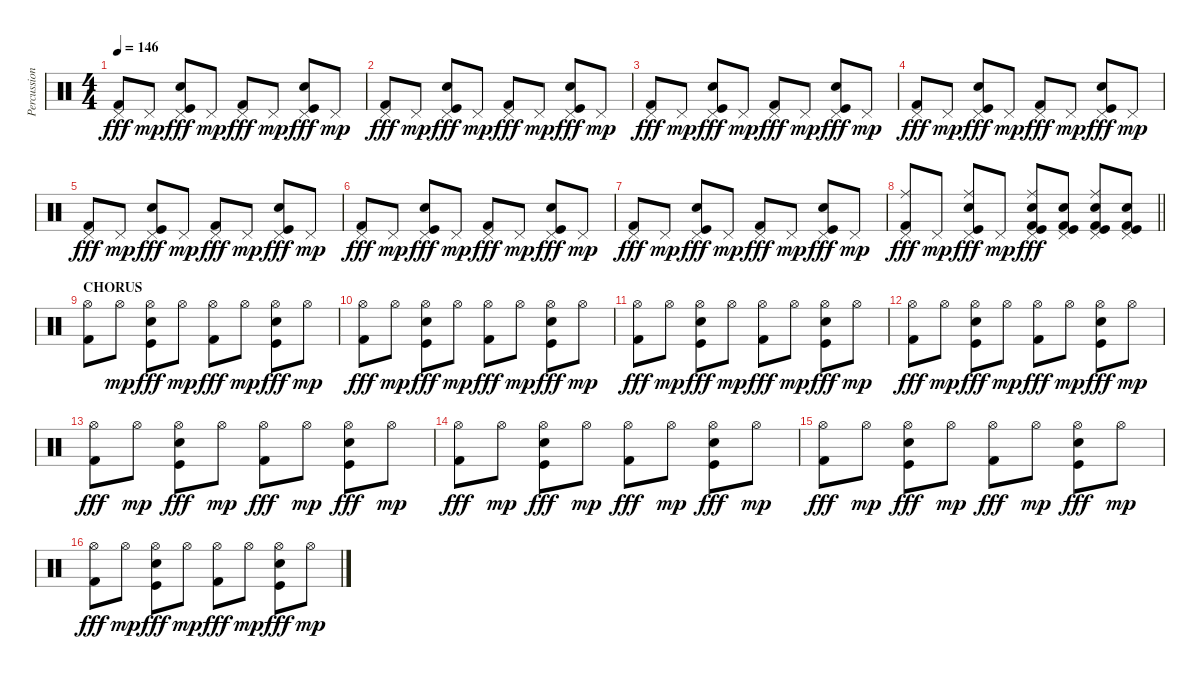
\track ("Percussion" "Percussion") {instrument percussion}
\staff {score}
\articulation defaults
\ts (4 4)
\tempo 146
\clef neutral
\ks c
("Pedal Hi-Hat (hit)" "Kick (hit) 2").8{dy fff} "Pedal Hi-Hat (hit)".8{dy mp} ("Pedal Hi-Hat (hit)" "Kick (hit)" "Snare (hit) 2").8{dy fff} "Pedal Hi-Hat (hit)".8{dy mp} ("Pedal Hi-Hat (hit)" "Kick (hit) 2").8{dy fff} "Pedal Hi-Hat (hit)".8{dy mp} ("Pedal Hi-Hat (hit)" "Kick (hit)" "Snare (hit) 2").8{dy fff} "Pedal Hi-Hat (hit)".8{dy mp} |
("Pedal Hi-Hat (hit)" "Kick (hit) 2").8{dy fff} "Pedal Hi-Hat (hit)".8{dy mp} ("Pedal Hi-Hat (hit)" "Kick (hit)" "Snare (hit) 2").8{dy fff} "Pedal Hi-Hat (hit)".8{dy mp} ("Pedal Hi-Hat (hit)" "Kick (hit) 2").8{dy fff} "Pedal Hi-Hat (hit)".8{dy mp} ("Pedal Hi-Hat (hit)" "Kick (hit)" "Snare (hit) 2").8{dy fff} "Pedal Hi-Hat (hit)".8{dy mp} |
("Pedal Hi-Hat (hit)" "Kick (hit) 2").8{dy fff} "Pedal Hi-Hat (hit)".8{dy mp} ("Pedal Hi-Hat (hit)" "Kick (hit)" "Snare (hit) 2").8{dy fff} "Pedal Hi-Hat (hit)".8{dy mp} ("Pedal Hi-Hat (hit)" "Kick (hit) 2").8{dy fff} "Pedal Hi-Hat (hit)".8{dy mp} ("Pedal Hi-Hat (hit)" "Kick (hit)" "Snare (hit) 2").8{dy fff} "Pedal Hi-Hat (hit)".8{dy mp} |
("Pedal Hi-Hat (hit)" "Kick (hit) 2").8{dy fff} "Pedal Hi-Hat (hit)".8{dy mp} ("Pedal Hi-Hat (hit)" "Kick (hit)" "Snare (hit) 2").8{dy fff} "Pedal Hi-Hat (hit)".8{dy mp} ("Pedal Hi-Hat (hit)" "Kick (hit) 2").8{dy fff} "Pedal Hi-Hat (hit)".8{dy mp} ("Pedal Hi-Hat (hit)" "Kick (hit)" "Snare (hit) 2").8{dy fff} "Pedal Hi-Hat (hit)".8{dy mp} |
("Pedal Hi-Hat (hit)" "Kick (hit) 2").8{dy fff} "Pedal Hi-Hat (hit)".8{dy mp} ("Pedal Hi-Hat (hit)" "Kick (hit)" "Snare (hit) 2").8{dy fff} "Pedal Hi-Hat (hit)".8{dy mp} ("Pedal Hi-Hat (hit)" "Kick (hit) 2").8{dy fff} "Pedal Hi-Hat (hit)".8{dy mp} ("Pedal Hi-Hat (hit)" "Kick (hit)" "Snare (hit) 2").8{dy fff} "Pedal Hi-Hat (hit)".8{dy mp} |
("Pedal Hi-Hat (hit)" "Kick (hit) 2").8{dy fff} "Pedal Hi-Hat (hit)".8{dy mp} ("Pedal Hi-Hat (hit)" "Kick (hit)" "Snare (hit) 2").8{dy fff} "Pedal Hi-Hat (hit)".8{dy mp} ("Pedal Hi-Hat (hit)" "Kick (hit) 2").8{dy fff} "Pedal Hi-Hat (hit)".8{dy mp} ("Pedal Hi-Hat (hit)" "Kick (hit)" "Snare (hit) 2").8{dy fff} "Pedal Hi-Hat (hit)".8{dy mp} |
("Pedal Hi-Hat (hit)" "Kick (hit) 2").8{dy fff} "Pedal Hi-Hat (hit)".8{dy mp} ("Pedal Hi-Hat (hit)" "Kick (hit)" "Snare (hit) 2").8{dy fff} "Pedal Hi-Hat (hit)".8{dy mp} ("Pedal Hi-Hat (hit)" "Kick (hit) 2").8{dy fff} "Pedal Hi-Hat (hit)".8{dy mp} ("Pedal Hi-Hat (hit)" "Kick (hit)" "Snare (hit) 2").8{dy fff} "Pedal Hi-Hat (hit)".8{dy mp} |
\barLineRight lightlight
("Pedal Hi-Hat (hit)" "Ride (middle)" "Kick (hit) 2").8{dy fff} "Pedal Hi-Hat (hit)".8{dy mp} ("Pedal Hi-Hat (hit)" "Ride (middle)" "Kick (hit)" "Snare (hit) 2").8{dy fff} "Pedal Hi-Hat (hit)".8{dy mp} ("Pedal Hi-Hat (hit)" "Ride (middle)" "Kick (hit)" "Snare (hit) 2" "Kick (hit) 2").8{dy fff} ("Pedal Hi-Hat (hit)" "Kick (hit)" "Snare (hit) 2" "Kick (hit) 2").8 ("Pedal Hi-Hat (hit)" "Ride (middle)" "Kick (hit)" "Snare (hit) 2" "Kick (hit) 2").8 ("Pedal Hi-Hat (hit)" "Kick (hit)" "Snare (hit) 2" "Kick (hit) 2").8 |
\section ("" "CHORUS")
("Hi-Hat (open)" "Kick (hit) 2").8 "Hi-Hat (open)".8{dy mp} ("Hi-Hat (open)" "Kick (hit)" "Snare (hit) 2").8{dy fff} "Hi-Hat (open)".8{dy mp} ("Hi-Hat (open)" "Kick (hit) 2").8{dy fff} "Hi-Hat (open)".8{dy mp} ("Hi-Hat (open)" "Kick (hit)" "Snare (hit) 2").8{dy fff} "Hi-Hat (open)".8{dy mp} |
("Hi-Hat (open)" "Kick (hit) 2").8{dy fff} "Hi-Hat (open)".8{dy mp} ("Hi-Hat (open)" "Kick (hit)" "Snare (hit) 2").8{dy fff} "Hi-Hat (open)".8{dy mp} ("Hi-Hat (open)" "Kick (hit) 2").8{dy fff} "Hi-Hat (open)".8{dy mp} ("Hi-Hat (open)" "Kick (hit)" "Snare (hit) 2").8{dy fff} "Hi-Hat (open)".8{dy mp} |
("Hi-Hat (open)" "Kick (hit) 2").8{dy fff} "Hi-Hat (open)".8{dy mp} ("Hi-Hat (open)" "Kick (hit)" "Snare (hit) 2").8{dy fff} "Hi-Hat (open)".8{dy mp} ("Hi-Hat (open)" "Kick (hit) 2").8{dy fff} "Hi-Hat (open)".8{dy mp} ("Hi-Hat (open)" "Kick (hit)" "Snare (hit) 2").8{dy fff} "Hi-Hat (open)".8{dy mp} |
("Hi-Hat (open)" "Kick (hit) 2").8{dy fff} "Hi-Hat (open)".8{dy mp} ("Hi-Hat (open)" "Kick (hit)" "Snare (hit) 2").8{dy fff} "Hi-Hat (open)".8{dy mp} ("Hi-Hat (open)" "Kick (hit) 2").8{dy fff} "Hi-Hat (open)".8{dy mp} ("Hi-Hat (open)" "Kick (hit)" "Snare (hit) 2").8{dy fff} "Hi-Hat (open)".8{dy mp} |
("Hi-Hat (open)" "Kick (hit) 2").8{dy fff} "Hi-Hat (open)".8{dy mp} ("Hi-Hat (open)" "Kick (hit)" "Snare (hit) 2").8{dy fff} "Hi-Hat (open)".8{dy mp} ("Hi-Hat (open)" "Kick (hit) 2").8{dy fff} "Hi-Hat (open)".8{dy mp} ("Hi-Hat (open)" "Kick (hit)" "Snare (hit) 2").8{dy fff} "Hi-Hat (open)".8{dy mp} |
("Hi-Hat (open)" "Kick (hit) 2").8{dy fff} "Hi-Hat (open)".8{dy mp} ("Hi-Hat (open)" "Kick (hit)" "Snare (hit) 2").8{dy fff} "Hi-Hat (open)".8{dy mp} ("Hi-Hat (open)" "Kick (hit) 2").8{dy fff} "Hi-Hat (open)".8{dy mp} ("Hi-Hat (open)" "Kick (hit)" "Snare (hit) 2").8{dy fff} "Hi-Hat (open)".8{dy mp} |
("Hi-Hat (open)" "Kick (hit) 2").8{dy fff} "Hi-Hat (open)".8{dy mp} ("Hi-Hat (open)" "Kick (hit)" "Snare (hit) 2").8{dy fff} "Hi-Hat (open)".8{dy mp} ("Hi-Hat (open)" "Kick (hit) 2").8{dy fff} "Hi-Hat (open)".8{dy mp} ("Hi-Hat (open)" "Kick (hit)" "Snare (hit) 2").8{dy fff} "Hi-Hat (open)".8{dy mp} |
("Hi-Hat (open)" "Kick (hit) 2").8{dy fff} "Hi-Hat (open)".8{dy mp} ("Hi-Hat (open)" "Kick (hit)" "Snare (hit) 2").8{dy fff} "Hi-Hat (open)".8{dy mp} ("Hi-Hat (open)" "Kick (hit) 2").8{dy fff} "Hi-Hat (open)".8{dy mp} ("Hi-Hat (open)" "Kick (hit)" "Snare (hit) 2").8{dy fff} "Hi-Hat (open)".8{dy mp}
